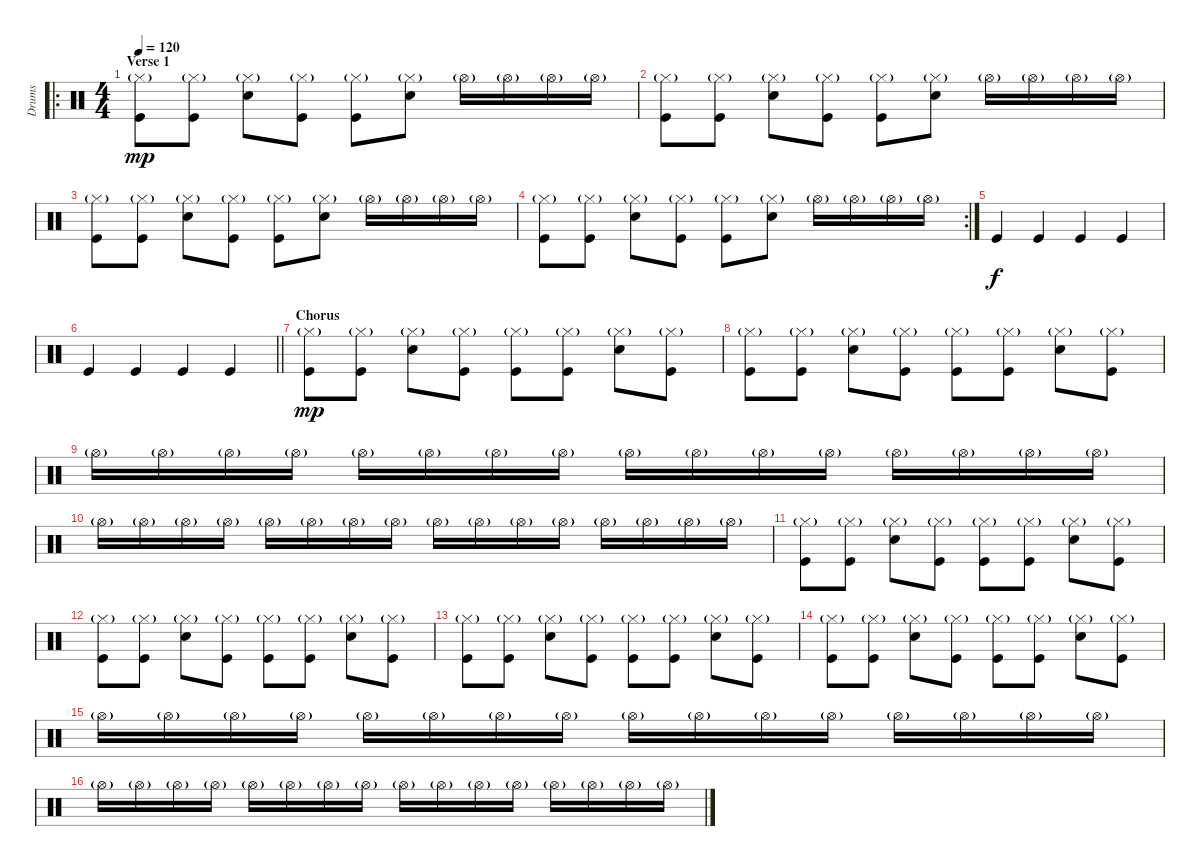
\track ("Drums" "Drums") {instrument percussion}
\staff {score}
\articulation defaults
\ro
\ts (4 4)
\section ("" "Verse 1")
\tempo 120
\clef neutral
\ks c
("Hi-Hat (closed)"{g} "Kick (hit)").8{dy mp} ("Hi-Hat (closed)"{g} "Kick (hit)").8 ("Hi-Hat (closed)"{g} "Electric Snare (hit)").8 ("Hi-Hat (closed)"{g} "Kick (hit)").8 ("Hi-Hat (closed)"{g} "Kick (hit)").8 ("Hi-Hat (closed)"{g} "Electric Snare (hit)").8 "Hi-Hat (open)"{g}.16 "Hi-Hat (open)"{g}.16 "Hi-Hat (open)"{g}.16 "Hi-Hat (open)"{g}.16 |
("Hi-Hat (closed)"{g} "Kick (hit)").8 ("Hi-Hat (closed)"{g} "Kick (hit)").8 ("Hi-Hat (closed)"{g} "Electric Snare (hit)").8 ("Hi-Hat (closed)"{g} "Kick (hit)").8 ("Hi-Hat (closed)"{g} "Kick (hit)").8 ("Hi-Hat (closed)"{g} "Electric Snare (hit)").8 "Hi-Hat (open)"{g}.16 "Hi-Hat (open)"{g}.16 "Hi-Hat (open)"{g}.16 "Hi-Hat (open)"{g}.16 |
("Hi-Hat (closed)"{g} "Kick (hit)").8 ("Hi-Hat (closed)"{g} "Kick (hit)").8 ("Hi-Hat (closed)"{g} "Electric Snare (hit)").8 ("Hi-Hat (closed)"{g} "Kick (hit)").8 ("Hi-Hat (closed)"{g} "Kick (hit)").8 ("Hi-Hat (closed)"{g} "Electric Snare (hit)").8 "Hi-Hat (open)"{g}.16 "Hi-Hat (open)"{g}.16 "Hi-Hat (open)"{g}.16 "Hi-Hat (open)"{g}.16 |
\rc 2
("Hi-Hat (closed)"{g} "Kick (hit)").8 ("Hi-Hat (closed)"{g} "Kick (hit)").8 ("Hi-Hat (closed)"{g} "Electric Snare (hit)").8 ("Hi-Hat (closed)"{g} "Kick (hit)").8 ("Hi-Hat (closed)"{g} "Kick (hit)").8 ("Hi-Hat (closed)"{g} "Electric Snare (hit)").8 "Hi-Hat (open)"{g}.16 "Hi-Hat (open)"{g}.16 "Hi-Hat (open)"{g}.16 "Hi-Hat (open)"{g}.16 |
"Kick (hit)".4{dy f} "Kick (hit)".4 "Kick (hit)".4 "Kick (hit)".4 |
\barLineRight lightlight "Kick (hit)".4 "Kick (hit)".4 "Kick (hit)".4 "Kick (hit)".4
|
\section ("" "Chorus")
("Hi-Hat (closed)"{g} "Kick (hit)").8{dy mp} ("Hi-Hat (closed)"{g} "Kick (hit)").8 ("Hi-Hat (closed)"{g} "Electric Snare (hit)").8 ("Hi-Hat (closed)"{g} "Kick (hit)").8 ("Hi-Hat (closed)"{g} "Kick (hit)").8 ("Hi-Hat (closed)"{g} "Kick (hit)").8 ("Hi-Hat (closed)"{g} "Electric Snare (hit)").8 ("Hi-Hat (closed)"{g} "Kick (hit)").8 |
("Hi-Hat (closed)"{g} "Kick (hit)").8 ("Hi-Hat (closed)"{g} "Kick (hit)").8 ("Hi-Hat (closed)"{g} "Electric Snare (hit)").8 ("Hi-Hat (closed)"{g} "Kick (hit)").8 ("Hi-Hat (closed)"{g} "Kick (hit)").8 ("Hi-Hat (closed)"{g} "Kick (hit)").8 ("Hi-Hat (closed)"{g} "Electric Snare (hit)").8 ("Hi-Hat (closed)"{g} "Kick (hit)").8 |
"Hi-Hat (open)"{g}.16 "Hi-Hat (open)"{g}.16 "Hi-Hat (open)"{g}.16 "Hi-Hat (open)"{g}.16 "Hi-Hat (open)"{g}.16 "Hi-Hat (open)"{g}.16 "Hi-Hat (open)"{g}.16 "Hi-Hat (open)"{g}.16 "Hi-Hat (open)"{g}.16 "Hi-Hat (open)"{g}.16 "Hi-Hat (open)"{g}.16 "Hi-Hat (open)"{g}.16 "Hi-Hat (open)"{g}.16 "Hi-Hat (open)"{g}.16 "Hi-Hat (open)"{g}.16 "Hi-Hat (open)"{g}.16 |
"Hi-Hat (open)"{g}.16 "Hi-Hat (open)"{g}.16 "Hi-Hat (open)"{g}.16 "Hi-Hat (open)"{g}.16 "Hi-Hat (open)"{g}.16 "Hi-Hat (open)"{g}.16 "Hi-Hat (open)"{g}.16 "Hi-Hat (open)"{g}.16 "Hi-Hat (open)"{g}.16 "Hi-Hat (open)"{g}.16 "Hi-Hat (open)"{g}.16 "Hi-Hat (open)"{g}.16 "Hi-Hat (open)"{g}.16 "Hi-Hat (open)"{g}.16 "Hi-Hat (open)"{g}.16 "Hi-Hat (open)"{g}.16 |
("Hi-Hat (closed)"{g} "Kick (hit)").8 ("Hi-Hat (closed)"{g} "Kick (hit)").8 ("Hi-Hat (closed)"{g} "Electric Snare (hit)").8 ("Hi-Hat (closed)"{g} "Kick (hit)").8 ("Hi-Hat (closed)"{g} "Kick (hit)").8 ("Hi-Hat (closed)"{g} "Kick (hit)").8 ("Hi-Hat (closed)"{g} "Electric Snare (hit)").8 ("Hi-Hat (closed)"{g} "Kick (hit)").8 |
("Hi-Hat (closed)"{g} "Kick (hit)").8 ("Hi-Hat (closed)"{g} "Kick (hit)").8 ("Hi-Hat (closed)"{g} "Electric Snare (hit)").8 ("Hi-Hat (closed)"{g} "Kick (hit)").8 ("Hi-Hat (closed)"{g} "Kick (hit)").8 ("Hi-Hat (closed)"{g} "Kick (hit)").8 ("Hi-Hat (closed)"{g} "Electric Snare (hit)").8 ("Hi-Hat (closed)"{g} "Kick (hit)").8 |
("Hi-Hat (closed)"{g} "Kick (hit)").8 ("Hi-Hat (closed)"{g} "Kick (hit)").8 ("Hi-Hat (closed)"{g} "Electric Snare (hit)").8 ("Hi-Hat (closed)"{g} "Kick (hit)").8 ("Hi-Hat (closed)"{g} "Kick (hit)").8 ("Hi-Hat (closed)"{g} "Kick (hit)").8 ("Hi-Hat (closed)"{g} "Electric Snare (hit)").8 ("Hi-Hat (closed)"{g} "Kick (hit)").8 |
("Hi-Hat (closed)"{g} "Kick (hit)").8 ("Hi-Hat (closed)"{g} "Kick (hit)").8 ("Hi-Hat (closed)"{g} "Electric Snare (hit)").8 ("Hi-Hat (closed)"{g} "Kick (hit)").8 ("Hi-Hat (closed)"{g} "Kick (hit)").8 ("Hi-Hat (closed)"{g} "Kick (hit)").8 ("Hi-Hat (closed)"{g} "Electric Snare (hit)").8 ("Hi-Hat (closed)"{g} "Kick (hit)").8 |
"Hi-Hat (open)"{g}.16 "Hi-Hat (open)"{g}.16 "Hi-Hat (open)"{g}.16 "Hi-Hat (open)"{g}.16 "Hi-Hat (open)"{g}.16 "Hi-Hat (open)"{g}.16 "Hi-Hat (open)"{g}.16 "Hi-Hat (open)"{g}.16 "Hi-Hat (open)"{g}.16 "Hi-Hat (open)"{g}.16 "Hi-Hat (open)"{g}.16 "Hi-Hat (open)"{g}.16 "Hi-Hat (open)"{g}.16 "Hi-Hat (open)"{g}.16 "Hi-Hat (open)"{g}.16 "Hi-Hat (open)"{g}.16 |
"Hi-Hat (open)"{g}.16 "Hi-Hat (open)"{g}.16 "Hi-Hat (open)"{g}.16 "Hi-Hat (open)"{g}.16 "Hi-Hat (open)"{g}.16 "Hi-Hat (open)"{g}.16 "Hi-Hat (open)"{g}.16 "Hi-Hat (open)"{g}.16 "Hi-Hat (open)"{g}.16 "Hi-Hat (open)"{g}.16 "Hi-Hat (open)"{g}.16 "Hi-Hat (open)"{g}.16 "Hi-Hat (open)"{g}.16 "Hi-Hat (open)"{g}.16 "Hi-Hat (open)"{g}.16 "Hi-Hat (open)"{g}.16
